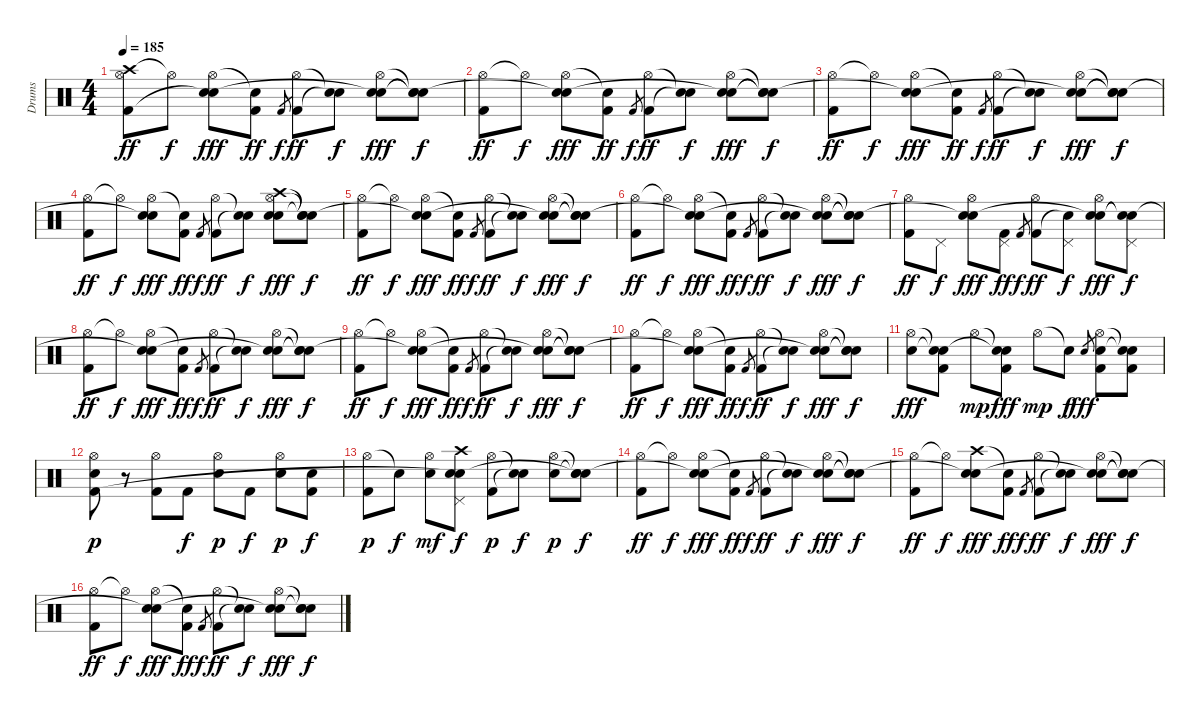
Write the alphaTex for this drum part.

\track ("Drums" "Drums") {instrument percussion}
\staff {score}
\articulation defaults
\ts (4 4)
\tempo 185
\clef neutral
\ks c
("Crash high (hit)" "Hi-Hat (open)" "Kick (hit) 2").8{dy ff} "Hi-Hat (open)"{t}.8{dy f} ("Hi-Hat (open)" "Electric Snare (hit)" "Snare (hit)"{t}).8{dy fff} ("Snare (hit)"{t} "Kick (hit) 2").8{dy ff} "Kick (hit) 2".8{gr dy f} ("Hi-Hat (open)" "Kick (hit) 2").8{dy ff} ("Snare (hit)"{t} "Snare (hit)"{t}).8{dy f} ("Hi-Hat (open)" "Electric Snare (hit)" "Snare (hit)"{t}).8{dy fff} ("Snare (hit)"{t} "Snare (hit)"{t} "Snare (hit)"{t}).8{dy f} |
("Hi-Hat (open)" "Kick (hit) 2").8{dy ff} "Hi-Hat (open)"{t}.8{dy f} ("Hi-Hat (open)" "Electric Snare (hit)" "Snare (hit)"{t}).8{dy fff} ("Snare (hit)"{t} "Kick (hit) 2").8{dy ff} "Kick (hit) 2".8{gr dy f} ("Hi-Hat (open)" "Kick (hit) 2").8{dy ff} ("Snare (hit)"{t} "Snare (hit)"{t}).8{dy f} ("Hi-Hat (open)" "Electric Snare (hit)" "Snare (hit)"{t}).8{dy fff} ("Snare (hit)"{t} "Snare (hit)"{t} "Snare (hit)"{t}).8{dy f} |
("Hi-Hat (open)" "Kick (hit) 2").8{dy ff} "Hi-Hat (open)"{t}.8{dy f} ("Hi-Hat (open)" "Electric Snare (hit)" "Snare (hit)"{t}).8{dy fff} ("Snare (hit)"{t} "Kick (hit) 2").8{dy ff} "Kick (hit) 2".8{gr dy f} ("Hi-Hat (open)" "Kick (hit) 2").8{dy ff} ("Snare (hit)"{t} "Snare (hit)"{t}).8{dy f} ("Hi-Hat (open)" "Electric Snare (hit)" "Snare (hit)"{t}).8{dy fff} ("Snare (hit)"{t} "Snare (hit)"{t} "Snare (hit)"{t}).8{dy f} |
("Hi-Hat (open)" "Kick (hit) 2").8{dy ff} "Hi-Hat (open)"{t}.8{dy f} ("Hi-Hat (open)" "Electric Snare (hit)" "Snare (hit)"{t}).8{dy fff} ("Snare (hit)"{t} "Kick (hit) 2").8{dy ff} "Kick (hit) 2".8{gr dy f} ("Hi-Hat (open)" "Kick (hit) 2").8{dy ff} ("Snare (hit)"{t} "Snare (hit)"{t}).8{dy f} ("Crash high (hit)" "Hi-Hat (open)" "Electric Snare (hit)" "Snare (hit)").8{dy fff} ("Snare (hit)"{t} "Snare (hit)"{t} "Snare (hit)"{t}).8{dy f} |
("Hi-Hat (open)" "Kick (hit) 2").8{dy ff} "Hi-Hat (open)"{t}.8{dy f} ("Hi-Hat (open)" "Electric Snare (hit)" "Snare (hit)"{t}).8{dy fff} ("Snare (hit)"{t} "Kick (hit) 2").8{dy ff} "Kick (hit) 2".8{gr dy f} ("Hi-Hat (open)" "Kick (hit) 2").8{dy ff} ("Snare (hit)"{t} "Snare (hit)"{t}).8{dy f} ("Hi-Hat (open)" "Electric Snare (hit)" "Snare (hit)"{t}).8{dy fff} ("Snare (hit)"{t} "Snare (hit)"{t} "Snare (hit)"{t}).8{dy f} |
("Hi-Hat (open)" "Kick (hit) 2").8{dy ff} "Hi-Hat (open)"{t}.8{dy f} ("Hi-Hat (open)" "Electric Snare (hit)" "Snare (hit)"{t}).8{dy fff} ("Snare (hit)"{t} "Kick (hit) 2").8{dy ff} "Kick (hit) 2".8{gr dy f} ("Hi-Hat (open)" "Kick (hit) 2").8{dy ff} ("Snare (hit)"{t} "Snare (hit)"{t}).8{dy f} ("Hi-Hat (open)" "Electric Snare (hit)" "Snare (hit)"{t}).8{dy fff} ("Snare (hit)"{t} "Snare (hit)"{t} "Snare (hit)"{t}).8{dy f} |
("Hi-Hat (open)" "Kick (hit) 2").8{dy ff} "Pedal Hi-Hat (hit)".8{dy f} ("Hi-Hat (open)" "Electric Snare (hit)" "Snare (hit)"{t}).8{dy fff} ("Pedal Hi-Hat (hit)" "Kick (hit) 2").8{dy ff} "Kick (hit) 2".8{gr dy f} ("Hi-Hat (open)" "Kick (hit) 2").8{dy ff} ("Pedal Hi-Hat (hit)" "Snare (hit)"{t}).8{dy f} ("Hi-Hat (open)" "Electric Snare (hit)" "Snare (hit)"{t}).8{dy fff} ("Pedal Hi-Hat (hit)" "Snare (hit)"{t} "Snare (hit)"{t}).8{dy f} |
("Hi-Hat (open)" "Kick (hit) 2").8{dy ff} "Hi-Hat (open)"{t}.8{dy f} ("Hi-Hat (open)" "Electric Snare (hit)" "Snare (hit)"{t}).8{dy fff} ("Snare (hit)"{t} "Kick (hit) 2").8{dy ff} "Kick (hit) 2".8{gr dy f} ("Hi-Hat (open)" "Kick (hit) 2").8{dy ff} ("Snare (hit)"{t} "Snare (hit)"{t}).8{dy f} ("Hi-Hat (open)" "Electric Snare (hit)" "Snare (hit)"{t}).8{dy fff} ("Snare (hit)"{t} "Snare (hit)"{t} "Snare (hit)"{t}).8{dy f} |
("Hi-Hat (open)" "Kick (hit) 2").8{dy ff} "Hi-Hat (open)"{t}.8{dy f} ("Hi-Hat (open)" "Electric Snare (hit)" "Snare (hit)"{t}).8{dy fff} ("Snare (hit)"{t} "Kick (hit) 2").8{dy ff} "Kick (hit) 2".8{gr dy f} ("Hi-Hat (open)" "Kick (hit) 2").8{dy ff} ("Snare (hit)"{t} "Snare (hit)"{t}).8{dy f} ("Hi-Hat (open)" "Electric Snare (hit)" "Snare (hit)"{t}).8{dy fff} ("Snare (hit)"{t} "Snare (hit)"{t} "Snare (hit)"{t}).8{dy f} |
("Hi-Hat (open)" "Kick (hit) 2").8{dy ff} "Hi-Hat (open)"{t}.8{dy f} ("Hi-Hat (open)" "Electric Snare (hit)" "Snare (hit)"{t}).8{dy fff} ("Snare (hit)"{t} "Kick (hit) 2").8{dy ff} "Kick (hit) 2".8{gr dy f} ("Hi-Hat (open)" "Kick (hit) 2").8{dy ff} ("Snare (hit)"{t} "Snare (hit)"{t}).8{dy f} ("Hi-Hat (open)" "Electric Snare (hit)" "Snare (hit)"{t}).8{dy fff} ("Snare (hit)"{t} "Snare (hit)"{t} "Snare (hit)"{t}).8{dy f} |
("Hi-Hat (open)" "Electric Snare (hit)").8{dy fff} ("Snare (hit)"{t} "Snare (hit)"{t} "Kick (hit) 2").8 "Hi-Hat (open)".8{dy mp} ("Snare (hit)"{t} "Snare (hit)"{t} "Kick (hit) 2").8{dy fff} "Hi-Hat (open)".8{dy mp} "Snare (hit)"{t}.8{dy f} "Electric Snare (hit)".8{gr dy fff} ("Hi-Hat (open)" "Electric Snare (hit)" "Kick (hit) 2").8 ("Snare (hit)"{t} "Snare (hit)"{t} "Kick (hit) 2").8 |
("Hi-Hat (open)" "Electric Snare (hit)" "Kick (hit) 2").8{dy p} r.8 ("Hi-Hat (open)" "Kick (hit) 2").8 "Kick (hit) 2".8{dy f} ("Hi-Hat (open)" "Electric Snare (hit)").8{dy p} "Kick (hit) 2".8{dy f} ("Hi-Hat (open)" "Electric Snare (hit)").8{dy p} ("Electric Snare (hit)" "Kick (hit) 2").8{dy f} |
("Hi-Hat (open)" "Kick (hit) 2").8{dy p} "Snare (hit)"{t}.8{dy f} ("Hi-Hat (open)" "Electric Snare (hit)").8{dy mf} ("Crash high (hit)" "Pedal Hi-Hat (hit)" "Snare (hit)"{t} "Snare (hit)").8{dy f} ("Hi-Hat (open)" "Kick (hit) 2").8{dy p} ("Snare (hit)"{t} "Snare (hit)"{t}).8{dy f} ("Hi-Hat (open)" "Electric Snare (hit)").8{dy p} ("Snare (hit)"{t} "Snare (hit)"{t} "Snare (hit)"{t}).8{dy f} |
("Hi-Hat (open)" "Kick (hit) 2").8{dy ff} "Hi-Hat (open)"{t}.8{dy f} ("Hi-Hat (open)" "Electric Snare (hit)" "Snare (hit)"{t}).8{dy fff} ("Snare (hit)"{t} "Kick (hit) 2").8{dy ff} "Kick (hit) 2".8{gr dy f} ("Hi-Hat (open)" "Kick (hit) 2").8{dy ff} ("Snare (hit)"{t} "Snare (hit)"{t}).8{dy f} ("Hi-Hat (open)" "Electric Snare (hit)" "Snare (hit)"{t}).8{dy fff} ("Snare (hit)"{t} "Snare (hit)"{t} "Snare (hit)"{t}).8{dy f} |
("Hi-Hat (open)" "Kick (hit) 2").8{dy ff} "Hi-Hat (open)"{t}.8{dy f} ("Crash high (hit)" "Electric Snare (hit)" "Snare (hit)"{t}).8{dy fff} ("Snare (hit)"{t} "Kick (hit) 2").8{dy ff} "Kick (hit) 2".8{gr dy f} ("Hi-Hat (open)" "Kick (hit) 2").8{dy ff} ("Snare (hit)"{t} "Snare (hit)"{t}).8{dy f} ("Hi-Hat (open)" "Electric Snare (hit)" "Snare (hit)"{t}).8{dy fff} ("Snare (hit)"{t} "Snare (hit)"{t} "Snare (hit)"{t}).8{dy f} |
("Hi-Hat (open)" "Kick (hit) 2").8{dy ff} "Hi-Hat (open)"{t}.8{dy f} ("Hi-Hat (open)" "Electric Snare (hit)" "Snare (hit)"{t}).8{dy fff} ("Snare (hit)"{t} "Kick (hit) 2").8{dy ff} "Kick (hit) 2".8{gr dy f} ("Hi-Hat (open)" "Kick (hit) 2").8{dy ff} ("Snare (hit)"{t} "Snare (hit)"{t}).8{dy f} ("Hi-Hat (open)" "Electric Snare (hit)" "Snare (hit)"{t}).8{dy fff} ("Snare (hit)"{t} "Electric Snare (hit)" "Snare (hit)"{t}).8{dy f}
